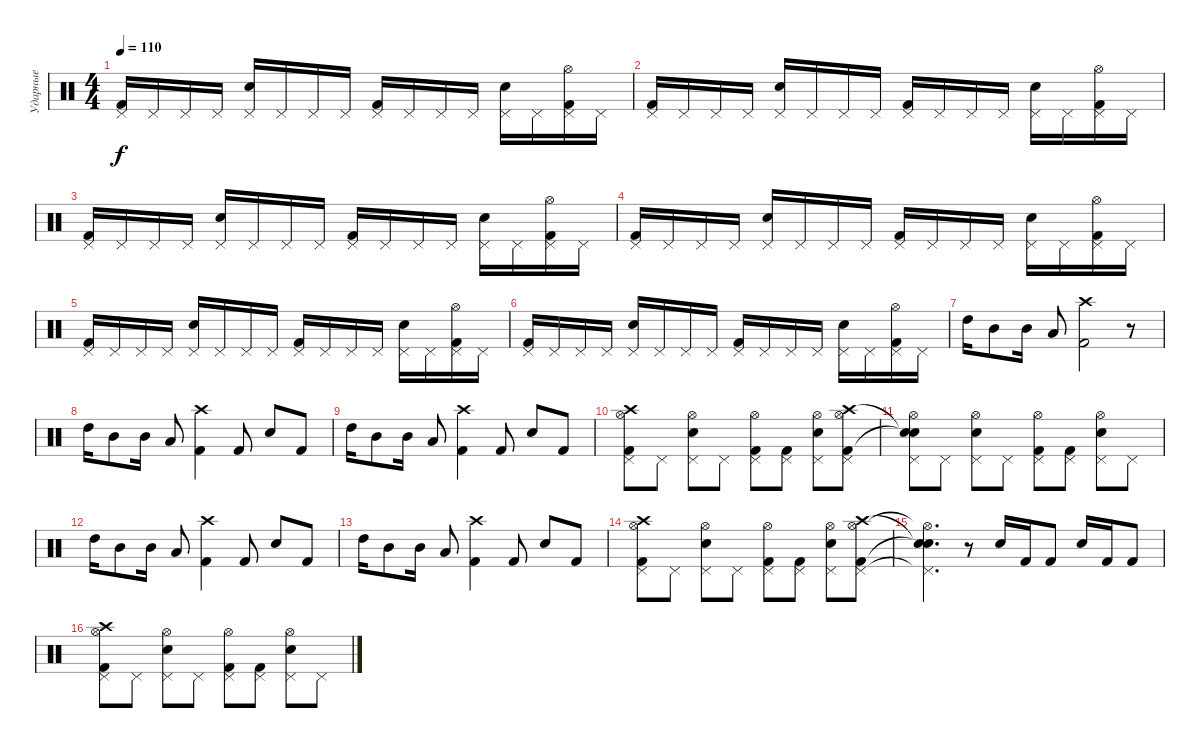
\track ("Ударные" "Ударные") {instrument percussion}
\staff {score}
\articulation defaults
\ts (4 4)
\tempo 110
\clef neutral
\ks c
("Kick (hit) 2" "Pedal Hi-Hat (hit)").16{dy f} "Pedal Hi-Hat (hit)".16 "Pedal Hi-Hat (hit)".16 "Pedal Hi-Hat (hit)".16 ("Snare (hit) 2" "Pedal Hi-Hat (hit)").16 "Pedal Hi-Hat (hit)".16 "Pedal Hi-Hat (hit)".16 "Pedal Hi-Hat (hit)".16 ("Kick (hit) 2" "Pedal Hi-Hat (hit)").16 "Pedal Hi-Hat (hit)".16 "Pedal Hi-Hat (hit)".16 "Pedal Hi-Hat (hit)".16 ("Snare (hit) 2" "Pedal Hi-Hat (hit)").16 "Pedal Hi-Hat (hit)".16 ("Kick (hit) 2" "Pedal Hi-Hat (hit)" "Hi-Hat (open)").16 "Pedal Hi-Hat (hit)".16 |
("Kick (hit) 2" "Pedal Hi-Hat (hit)").16 "Pedal Hi-Hat (hit)".16 "Pedal Hi-Hat (hit)".16 "Pedal Hi-Hat (hit)".16 ("Snare (hit) 2" "Pedal Hi-Hat (hit)").16 "Pedal Hi-Hat (hit)".16 "Pedal Hi-Hat (hit)".16 "Pedal Hi-Hat (hit)".16 ("Kick (hit) 2" "Pedal Hi-Hat (hit)").16 "Pedal Hi-Hat (hit)".16 "Pedal Hi-Hat (hit)".16 "Pedal Hi-Hat (hit)".16 ("Snare (hit) 2" "Pedal Hi-Hat (hit)").16 "Pedal Hi-Hat (hit)".16 ("Kick (hit) 2" "Pedal Hi-Hat (hit)" "Hi-Hat (open)").16 "Pedal Hi-Hat (hit)".16 |
("Kick (hit) 2" "Pedal Hi-Hat (hit)").16 "Pedal Hi-Hat (hit)".16 "Pedal Hi-Hat (hit)".16 "Pedal Hi-Hat (hit)".16 ("Snare (hit) 2" "Pedal Hi-Hat (hit)").16 "Pedal Hi-Hat (hit)".16 "Pedal Hi-Hat (hit)".16 "Pedal Hi-Hat (hit)".16 ("Kick (hit) 2" "Pedal Hi-Hat (hit)").16 "Pedal Hi-Hat (hit)".16 "Pedal Hi-Hat (hit)".16 "Pedal Hi-Hat (hit)".16 ("Snare (hit) 2" "Pedal Hi-Hat (hit)").16 "Pedal Hi-Hat (hit)".16 ("Kick (hit) 2" "Pedal Hi-Hat (hit)" "Hi-Hat (open)").16 "Pedal Hi-Hat (hit)".16 |
("Kick (hit) 2" "Pedal Hi-Hat (hit)").16 "Pedal Hi-Hat (hit)".16 "Pedal Hi-Hat (hit)".16 "Pedal Hi-Hat (hit)".16 ("Snare (hit) 2" "Pedal Hi-Hat (hit)").16 "Pedal Hi-Hat (hit)".16 "Pedal Hi-Hat (hit)".16 "Pedal Hi-Hat (hit)".16 ("Kick (hit) 2" "Pedal Hi-Hat (hit)").16 "Pedal Hi-Hat (hit)".16 "Pedal Hi-Hat (hit)".16 "Pedal Hi-Hat (hit)".16 ("Snare (hit) 2" "Pedal Hi-Hat (hit)").16 "Pedal Hi-Hat (hit)".16 ("Kick (hit) 2" "Pedal Hi-Hat (hit)" "Hi-Hat (open)").16 "Pedal Hi-Hat (hit)".16 |
("Kick (hit) 2" "Pedal Hi-Hat (hit)").16 "Pedal Hi-Hat (hit)".16 "Pedal Hi-Hat (hit)".16 "Pedal Hi-Hat (hit)".16 ("Snare (hit) 2" "Pedal Hi-Hat (hit)").16 "Pedal Hi-Hat (hit)".16 "Pedal Hi-Hat (hit)".16 "Pedal Hi-Hat (hit)".16 ("Kick (hit) 2" "Pedal Hi-Hat (hit)").16 "Pedal Hi-Hat (hit)".16 "Pedal Hi-Hat (hit)".16 "Pedal Hi-Hat (hit)".16 ("Snare (hit) 2" "Pedal Hi-Hat (hit)").16 "Pedal Hi-Hat (hit)".16 ("Kick (hit) 2" "Pedal Hi-Hat (hit)" "Hi-Hat (open)").16 "Pedal Hi-Hat (hit)".16 |
("Kick (hit) 2" "Pedal Hi-Hat (hit)").16 "Pedal Hi-Hat (hit)".16 "Pedal Hi-Hat (hit)".16 "Pedal Hi-Hat (hit)".16 ("Snare (hit) 2" "Pedal Hi-Hat (hit)").16 "Pedal Hi-Hat (hit)".16 "Pedal Hi-Hat (hit)".16 "Pedal Hi-Hat (hit)".16 ("Kick (hit) 2" "Pedal Hi-Hat (hit)").16 "Pedal Hi-Hat (hit)".16 "Pedal Hi-Hat (hit)".16 "Pedal Hi-Hat (hit)".16 ("Snare (hit) 2" "Pedal Hi-Hat (hit)").16 "Pedal Hi-Hat (hit)".16 ("Kick (hit) 2" "Pedal Hi-Hat (hit)" "Hi-Hat (open)").16 "Pedal Hi-Hat (hit)".16 |
"High Tom (hit)".16 "Mid Tom (hit)".8 "Mid Tom (hit)".16 "Low Tom (hit)".8 ("Kick (hit) 2" "Crash high (hit)").2 r.8 |
"High Tom (hit)".16 "Mid Tom (hit)".8 "Mid Tom (hit)".16 "Low Tom (hit)".8 ("Kick (hit) 2" "Crash high (hit)").4 "Kick (hit) 2".8 "Snare (hit) 2".8 "Kick (hit) 2".8 |
"High Tom (hit)".16 "Mid Tom (hit)".8 "Mid Tom (hit)".16 "Low Tom (hit)".8 ("Kick (hit) 2" "Crash high (hit)").4 "Kick (hit) 2".8 "Snare (hit) 2".8 "Kick (hit) 2".8 |
("Kick (hit) 2" "Crash high (hit)" "Pedal Hi-Hat (hit)" "Hi-Hat (open)").8 "Pedal Hi-Hat (hit)".8 ("Snare (hit) 2" "Pedal Hi-Hat (hit)" "Hi-Hat (open)").8 "Pedal Hi-Hat (hit)".8 ("Kick (hit) 2" "Pedal Hi-Hat (hit)" "Hi-Hat (open)").8 ("Kick (hit) 2" "Pedal Hi-Hat (hit)").8 ("Snare (hit) 2" "Pedal Hi-Hat (hit)" "Hi-Hat (open)").8 ("Kick (hit) 2" "Crash high (hit)" "Pedal Hi-Hat (hit)" "Hi-Hat (open)").8 |
("Snare (hit)"{t} "Snare (hit)"{t} "Pedal Hi-Hat (hit)" "Hi-Hat (open)").8 "Pedal Hi-Hat (hit)".8 ("Snare (hit) 2" "Pedal Hi-Hat (hit)" "Hi-Hat (open)").8 "Pedal Hi-Hat (hit)".8 ("Kick (hit) 2" "Pedal Hi-Hat (hit)" "Hi-Hat (open)").8 ("Kick (hit) 2" "Pedal Hi-Hat (hit)").8 ("Snare (hit) 2" "Pedal Hi-Hat (hit)" "Hi-Hat (open)").8 "Pedal Hi-Hat (hit)".8 |
"High Tom (hit)".16 "Mid Tom (hit)".8 "Mid Tom (hit)".16 "Low Tom (hit)".8 ("Kick (hit) 2" "Crash high (hit)").4 "Kick (hit) 2".8 "Snare (hit) 2".8 "Kick (hit) 2".8 |
"High Tom (hit)".16 "Mid Tom (hit)".8 "Mid Tom (hit)".16 "Low Tom (hit)".8 ("Kick (hit) 2" "Crash high (hit)").4 "Kick (hit) 2".8 "Snare (hit) 2".8 "Kick (hit) 2".8 |
("Kick (hit) 2" "Crash high (hit)" "Pedal Hi-Hat (hit)" "Hi-Hat (open)").8 "Pedal Hi-Hat (hit)".8 ("Snare (hit) 2" "Pedal Hi-Hat (hit)" "Hi-Hat (open)").8 "Pedal Hi-Hat (hit)".8 ("Kick (hit) 2" "Pedal Hi-Hat (hit)" "Hi-Hat (open)").8 ("Kick (hit) 2" "Pedal Hi-Hat (hit)").8 ("Snare (hit) 2" "Pedal Hi-Hat (hit)" "Hi-Hat (open)").8 ("Kick (hit) 2" "Crash high (hit)" "Pedal Hi-Hat (hit)" "Hi-Hat (open)").8 |
("Snare (hit)"{t} "Snare (hit)"{t} "Pedal Hi-Hat (hit)"{t} "Hi-Hat (open)"{t}).4{d} r.8 "Snare (hit) 2".16 "Kick (hit) 2".16 "Kick (hit) 2".8 "Snare (hit) 2".16 "Kick (hit) 2".16 "Kick (hit) 2".8 |
("Kick (hit) 2" "Crash high (hit)" "Pedal Hi-Hat (hit)" "Hi-Hat (open)").8 "Pedal Hi-Hat (hit)".8 ("Snare (hit) 2" "Pedal Hi-Hat (hit)" "Hi-Hat (open)").8 "Pedal Hi-Hat (hit)".8 ("Kick (hit) 2" "Pedal Hi-Hat (hit)" "Hi-Hat (open)").8 ("Kick (hit) 2" "Pedal Hi-Hat (hit)").8 ("Snare (hit) 2" "Pedal Hi-Hat (hit)" "Hi-Hat (open)").8 "Pedal Hi-Hat (hit)".8
